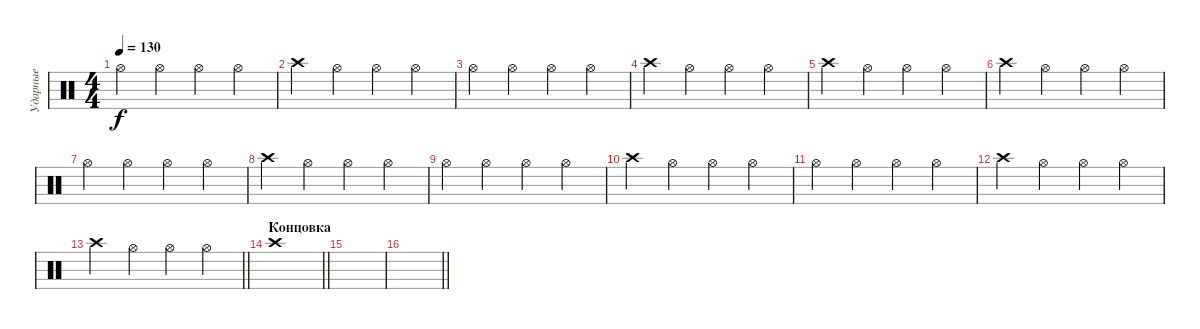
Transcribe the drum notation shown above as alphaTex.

\track ("Ударные" "Ударные") {instrument percussion}
\staff {score}
\articulation defaults
\ts (4 4)
\tempo 130
\clef neutral
\ks c "Hi-Hat (open)".4{dy f} "Hi-Hat (open)".4 "Hi-Hat (open)".4 "Hi-Hat (open)".4
|
"Crash high (hit)".4 "Hi-Hat (open)".4 "Hi-Hat (open)".4 "Hi-Hat (open)".4 |
"Hi-Hat (open)".4 "Hi-Hat (open)".4 "Hi-Hat (open)".4 "Hi-Hat (open)".4 |
"Crash high (hit)".4 "Hi-Hat (open)".4 "Hi-Hat (open)".4 "Hi-Hat (open)".4 |
"Crash high (hit)".4 "Hi-Hat (open)".4 "Hi-Hat (open)".4 "Hi-Hat (open)".4 |
"Crash high (hit)".4 "Hi-Hat (open)".4 "Hi-Hat (open)".4 "Hi-Hat (open)".4 |
"Hi-Hat (open)".4 "Hi-Hat (open)".4 "Hi-Hat (open)".4 "Hi-Hat (open)".4 |
"Crash high (hit)".4 "Hi-Hat (open)".4 "Hi-Hat (open)".4 "Hi-Hat (open)".4 |
"Hi-Hat (open)".4 "Hi-Hat (open)".4 "Hi-Hat (open)".4 "Hi-Hat (open)".4 |
"Crash high (hit)".4 "Hi-Hat (open)".4 "Hi-Hat (open)".4 "Hi-Hat (open)".4 |
"Hi-Hat (open)".4 "Hi-Hat (open)".4 "Hi-Hat (open)".4 "Hi-Hat (open)".4 |
"Crash high (hit)".4 "Hi-Hat (open)".4 "Hi-Hat (open)".4 "Hi-Hat (open)".4 |
\barLineRight lightlight "Crash high (hit)".4 "Hi-Hat (open)".4 "Hi-Hat (open)".4 "Hi-Hat (open)".4
|
\section ("" "Концовка")
\barLineRight lightlight "Crash high (hit)".1
|
|
\barLineRight lightlight
